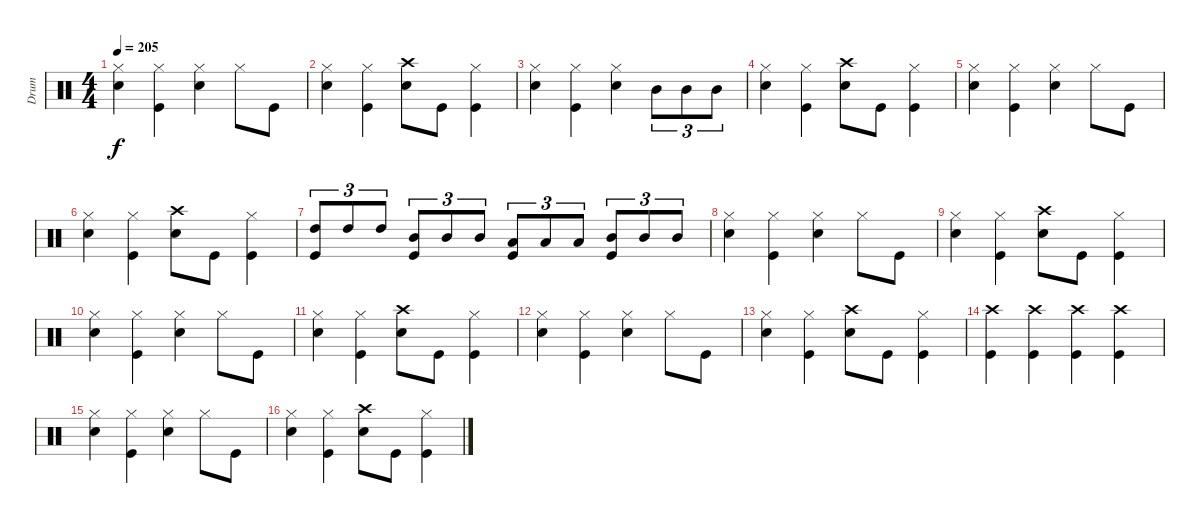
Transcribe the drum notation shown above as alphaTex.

\track ("Drum" "Drum") {instrument percussion}
\staff {score}
\articulation defaults
\ts (4 4)
\tempo 205
\clef neutral
\ks c
("Hi-Hat (closed)" "Snare (hit) 2").4{dy f} ("Hi-Hat (closed)" "Kick (hit)").4 ("Hi-Hat (closed)" "Snare (hit) 2").4 "Hi-Hat (closed)".8 "Kick (hit)".8 |
("Hi-Hat (closed)" "Snare (hit) 2").4 ("Hi-Hat (closed)" "Kick (hit)").4 ("Crash high (hit)" "Snare (hit) 2").8 "Kick (hit)".8 ("Hi-Hat (closed)" "Kick (hit)").4 |
("Hi-Hat (closed)" "Snare (hit) 2").4 ("Hi-Hat (closed)" "Kick (hit)").4 ("Hi-Hat (closed)" "Snare (hit) 2").4 "Mid Tom (hit)".8{tu (3 2)} "Mid Tom (hit)".8{tu (3 2)} "Mid Tom (hit)".8{tu (3 2)} |
("Hi-Hat (closed)" "Snare (hit) 2").4 ("Hi-Hat (closed)" "Kick (hit)").4 ("Crash high (hit)" "Snare (hit) 2").8 "Kick (hit)".8 ("Hi-Hat (closed)" "Kick (hit)").4 |
("Hi-Hat (closed)" "Snare (hit) 2").4 ("Hi-Hat (closed)" "Kick (hit)").4 ("Hi-Hat (closed)" "Snare (hit) 2").4 "Hi-Hat (closed)".8 "Kick (hit)".8 |
("Hi-Hat (closed)" "Snare (hit) 2").4 ("Hi-Hat (closed)" "Kick (hit)").4 ("Crash high (hit)" "Snare (hit) 2").8 "Kick (hit)".8 ("Hi-Hat (closed)" "Kick (hit)").4 |
("High Tom (hit)" "Kick (hit)").8{tu (3 2)} "High Tom (hit)".8{tu (3 2)} "High Tom (hit)".8{tu (3 2)} ("Mid Tom (hit)" "Kick (hit)").8{tu (3 2)} "Mid Tom (hit)".8{tu (3 2)} "Mid Tom (hit)".8{tu (3 2)} ("Low Floor Tom (hit)" "Kick (hit)").8{tu (3 2)} "Low Floor Tom (hit)".8{tu (3 2)} "Low Floor Tom (hit)".8{tu (3 2)} ("Mid Tom (hit)" "Kick (hit)").8{tu (3 2)} "Mid Tom (hit)".8{tu (3 2)} "Mid Tom (hit)".8{tu (3 2)} |
("Hi-Hat (closed)" "Snare (hit) 2").4 ("Hi-Hat (closed)" "Kick (hit)").4 ("Hi-Hat (closed)" "Snare (hit) 2").4 "Hi-Hat (closed)".8 "Kick (hit)".8 |
("Hi-Hat (closed)" "Snare (hit) 2").4 ("Hi-Hat (closed)" "Kick (hit)").4 ("Crash high (hit)" "Snare (hit) 2").8 "Kick (hit)".8 ("Hi-Hat (closed)" "Kick (hit)").4 |
("Hi-Hat (closed)" "Snare (hit) 2").4 ("Hi-Hat (closed)" "Kick (hit)").4 ("Hi-Hat (closed)" "Snare (hit) 2").4 "Hi-Hat (closed)".8 "Kick (hit)".8 |
("Hi-Hat (closed)" "Snare (hit) 2").4 ("Hi-Hat (closed)" "Kick (hit)").4 ("Crash high (hit)" "Snare (hit) 2").8 "Kick (hit)".8 ("Hi-Hat (closed)" "Kick (hit)").4 |
("Hi-Hat (closed)" "Snare (hit) 2").4 ("Hi-Hat (closed)" "Kick (hit)").4 ("Hi-Hat (closed)" "Snare (hit) 2").4 "Hi-Hat (closed)".8 "Kick (hit)".8 |
("Hi-Hat (closed)" "Snare (hit) 2").4 ("Hi-Hat (closed)" "Kick (hit)").4 ("Crash high (hit)" "Snare (hit) 2").8 "Kick (hit)".8 ("Hi-Hat (closed)" "Kick (hit)").4 |
("Crash high (hit)" "Kick (hit)").4 ("Crash high (hit)" "Kick (hit)").4 ("Crash high (hit)" "Kick (hit)").4 ("Crash high (hit)" "Kick (hit)").4 |
("Hi-Hat (closed)" "Snare (hit) 2").4 ("Hi-Hat (closed)" "Kick (hit)").4 ("Hi-Hat (closed)" "Snare (hit) 2").4 "Hi-Hat (closed)".8 "Kick (hit)".8 |
("Hi-Hat (closed)" "Snare (hit) 2").4 ("Hi-Hat (closed)" "Kick (hit)").4 ("Crash high (hit)" "Snare (hit) 2").8 "Kick (hit)".8 ("Hi-Hat (closed)" "Kick (hit)").4
